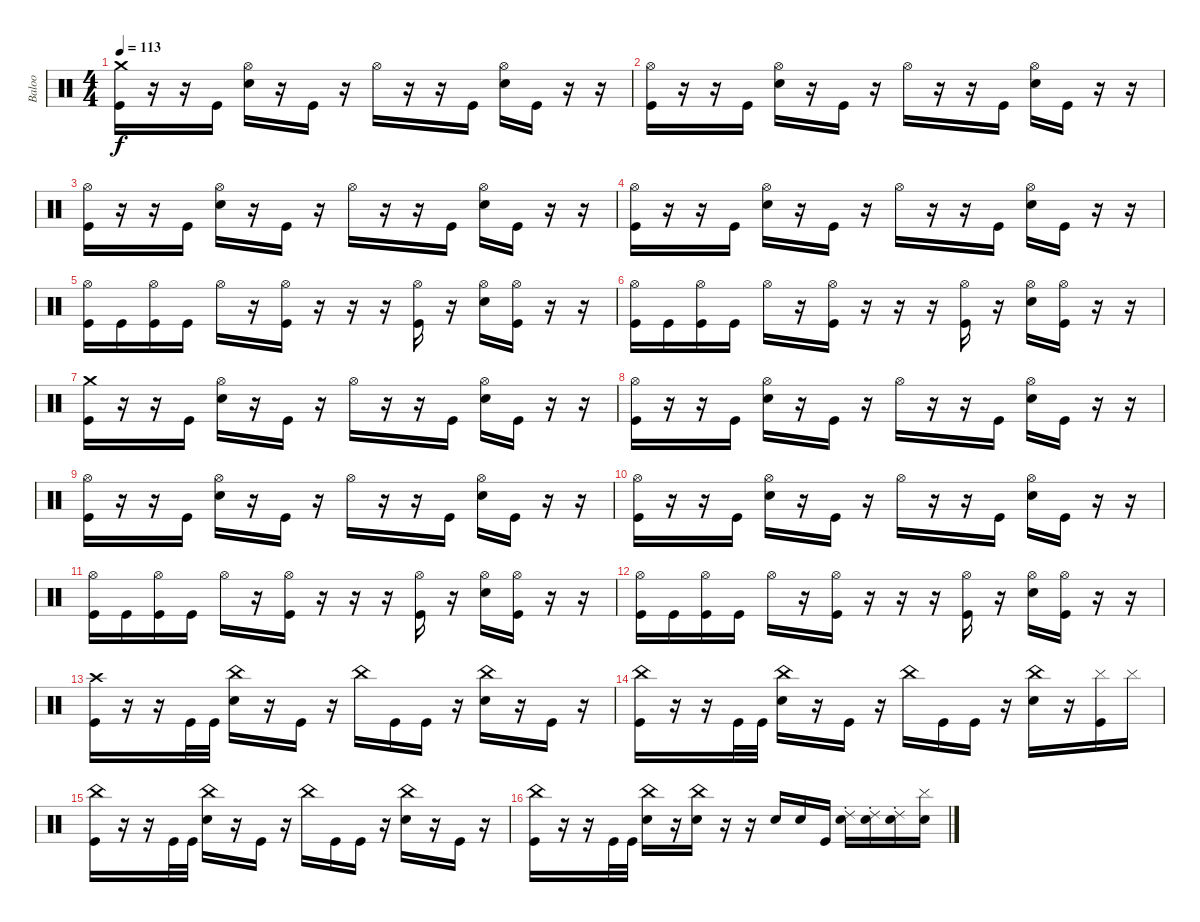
\track ("Baloo" "Baloo") {instrument percussion}
\staff {score}
\articulation defaults
\ts (4 4)
\tempo 113
\clef neutral
\ks c
("Crash medium (hit)" "Kick (hit)").16{dy f} r.16 r.16 "Kick (hit)".16 ("Hi-Hat (open)" "Electric Snare (hit)").16 r.16 "Kick (hit)".16 r.16 "Hi-Hat (open)".16 r.16 r.16 "Kick (hit)".16 ("Hi-Hat (open)" "Electric Snare (hit)").16 "Kick (hit)".16 r.16 r.16 |
("Hi-Hat (open)" "Kick (hit)").16 r.16 r.16 "Kick (hit)".16 ("Hi-Hat (open)" "Electric Snare (hit)").16 r.16 "Kick (hit)".16 r.16 "Hi-Hat (open)".16 r.16 r.16 "Kick (hit)".16 ("Hi-Hat (open)" "Electric Snare (hit)").16 "Kick (hit)".16 r.16 r.16 |
("Hi-Hat (open)" "Kick (hit)").16 r.16 r.16 "Kick (hit)".16 ("Hi-Hat (open)" "Electric Snare (hit)").16 r.16 "Kick (hit)".16 r.16 "Hi-Hat (open)".16 r.16 r.16 "Kick (hit)".16 ("Hi-Hat (open)" "Electric Snare (hit)").16 "Kick (hit)".16 r.16 r.16 |
("Hi-Hat (open)" "Kick (hit)").16 r.16 r.16 "Kick (hit)".16 ("Hi-Hat (open)" "Electric Snare (hit)").16 r.16 "Kick (hit)".16 r.16 "Hi-Hat (open)".16 r.16 r.16 "Kick (hit)".16 ("Hi-Hat (open)" "Electric Snare (hit)").16 "Kick (hit)".16 r.16 r.16 |
("Hi-Hat (open)" "Kick (hit)").16 "Kick (hit)".16 ("Hi-Hat (open)" "Kick (hit)").16 "Kick (hit)".16 "Hi-Hat (open)".16 r.16 ("Hi-Hat (open)" "Kick (hit)").16 r.16 r.16 r.16 ("Hi-Hat (open)" "Kick (hit)").16 r.16 ("Hi-Hat (open)" "Electric Snare (hit)").16 ("Hi-Hat (open)" "Kick (hit)").16 r.16 r.16 |
("Hi-Hat (open)" "Kick (hit)").16 "Kick (hit)".16 ("Hi-Hat (open)" "Kick (hit)").16 "Kick (hit)".16 "Hi-Hat (open)".16 r.16 ("Hi-Hat (open)" "Kick (hit)").16 r.16 r.16 r.16 ("Hi-Hat (open)" "Kick (hit)").16 r.16 ("Hi-Hat (open)" "Electric Snare (hit)").16 ("Hi-Hat (open)" "Kick (hit)").16 r.16 r.16 |
("Crash medium (hit)" "Kick (hit)").16 r.16 r.16 "Kick (hit)".16 ("Hi-Hat (open)" "Electric Snare (hit)").16 r.16 "Kick (hit)".16 r.16 "Hi-Hat (open)".16 r.16 r.16 "Kick (hit)".16 ("Hi-Hat (open)" "Electric Snare (hit)").16 "Kick (hit)".16 r.16 r.16 |
("Hi-Hat (open)" "Kick (hit)").16 r.16 r.16 "Kick (hit)".16 ("Hi-Hat (open)" "Electric Snare (hit)").16 r.16 "Kick (hit)".16 r.16 "Hi-Hat (open)".16 r.16 r.16 "Kick (hit)".16 ("Hi-Hat (open)" "Electric Snare (hit)").16 "Kick (hit)".16 r.16 r.16 |
("Hi-Hat (open)" "Kick (hit)").16 r.16 r.16 "Kick (hit)".16 ("Hi-Hat (open)" "Electric Snare (hit)").16 r.16 "Kick (hit)".16 r.16 "Hi-Hat (open)".16 r.16 r.16 "Kick (hit)".16 ("Hi-Hat (open)" "Electric Snare (hit)").16 "Kick (hit)".16 r.16 r.16 |
("Hi-Hat (open)" "Kick (hit)").16 r.16 r.16 "Kick (hit)".16 ("Hi-Hat (open)" "Electric Snare (hit)").16 r.16 "Kick (hit)".16 r.16 "Hi-Hat (open)".16 r.16 r.16 "Kick (hit)".16 ("Hi-Hat (open)" "Electric Snare (hit)").16 "Kick (hit)".16 r.16 r.16 |
("Hi-Hat (open)" "Kick (hit)").16 "Kick (hit)".16 ("Hi-Hat (open)" "Kick (hit)").16 "Kick (hit)".16 "Hi-Hat (open)".16 r.16 ("Hi-Hat (open)" "Kick (hit)").16 r.16 r.16 r.16 ("Hi-Hat (open)" "Kick (hit)").16 r.16 ("Hi-Hat (open)" "Electric Snare (hit)").16 ("Hi-Hat (open)" "Kick (hit)").16 r.16 r.16 |
("Hi-Hat (open)" "Kick (hit)").16 "Kick (hit)".16 ("Hi-Hat (open)" "Kick (hit)").16 "Kick (hit)".16 "Hi-Hat (open)".16 r.16 ("Hi-Hat (open)" "Kick (hit)").16 r.16 r.16 r.16 ("Hi-Hat (open)" "Kick (hit)").16 r.16 ("Hi-Hat (open)" "Electric Snare (hit)").16 ("Hi-Hat (open)" "Kick (hit)").16 r.16 r.16 |
("Crash high (hit)" "Kick (hit)").16 r.16 r.16 "Kick (hit)".32 "Kick (hit)".32 ("China (hit)" "Electric Snare (hit)").16 r.16 "Kick (hit)".16 r.16 "China (hit)".16 "Kick (hit)".16 "Kick (hit)".16 r.16 ("China (hit)" "Electric Snare (hit)").16 r.16 "Kick (hit)".16 r.16 |
("China (hit)" "Kick (hit)").16 r.16 r.16 "Kick (hit)".32 "Kick (hit)".32 ("China (hit)" "Electric Snare (hit)").16 r.16 "Kick (hit)".16 r.16 "China (hit)".16 "Kick (hit)".16 "Kick (hit)".16 r.16 ("China (hit)" "Electric Snare (hit)").16 r.16 ("Cymbal (hit)" "Kick (hit)").16 "Cymbal (hit)".16 |
("China (hit)" "Kick (hit)").16 r.16 r.16 "Kick (hit)".32 "Kick (hit)".32 ("China (hit)" "Electric Snare (hit)").16 r.16 "Kick (hit)".16 r.16 "China (hit)".16 "Kick (hit)".16 "Kick (hit)".16 r.16 ("China (hit)" "Electric Snare (hit)").16 r.16 "Kick (hit)".16 r.16 |
("China (hit)" "Kick (hit)").16 r.16 r.16 "Kick (hit)".32 "Kick (hit)".32 ("China (hit)" "Electric Snare (hit)").16 r.16 ("China (hit)" "Electric Snare (hit)").16 r.16 r.16 "Electric Snare (hit)".16 "Electric Snare (hit)".16 "Kick (hit)".16 ("Ride (choke) 2" "Electric Snare (hit)").16 ("Ride (choke) 2" "Electric Snare (hit)").16 ("Ride (choke) 2" "Electric Snare (hit)").16 ("Cymbal (hit)" "Electric Snare (hit)").16
